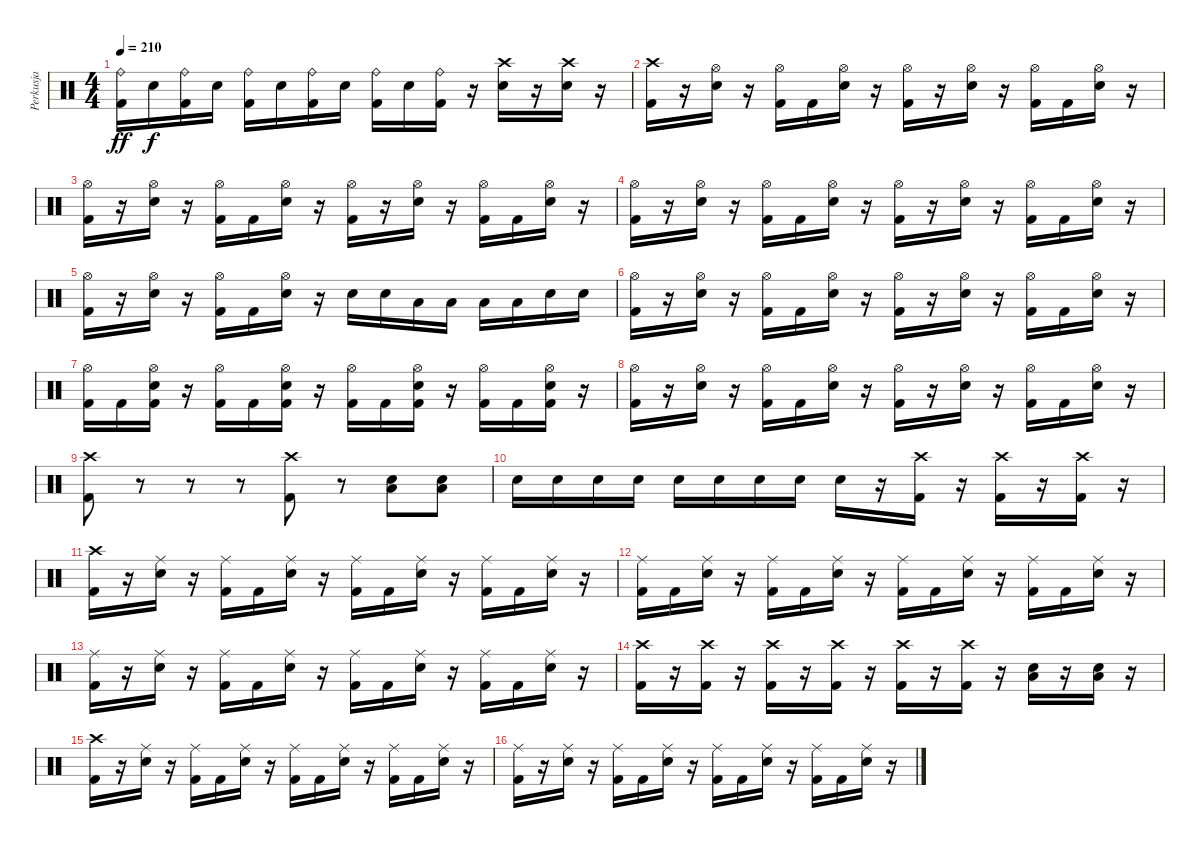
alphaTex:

\track ("Perkusja" "Perkusja") {instrument percussion}
\staff {score}
\articulation defaults
\ts (4 4)
\tempo 210
\clef neutral
\ks c
("Ride (bell)" "Kick (hit) 2").16{dy ff} "Snare (hit) 2".16{dy f} ("Ride (bell)" "Kick (hit) 2").16 "Snare (hit) 2".16 ("Ride (bell)" "Kick (hit) 2").16 "Snare (hit) 2".16 ("Ride (bell)" "Kick (hit) 2").16 "Snare (hit) 2".16 ("Ride (bell)" "Kick (hit) 2").16 "Snare (hit) 2".16 ("Ride (bell)" "Kick (hit) 2").16 r.16 ("Crash high (hit)" "Snare (hit) 2").16 r.16 ("Crash high (hit)" "Snare (hit) 2").16 r.16 |
("Crash high (hit)" "Kick (hit) 2").16 r.16 ("Hi-Hat (open)" "Snare (hit) 2").16 r.16 ("Hi-Hat (open)" "Kick (hit) 2").16 "Kick (hit) 2".16 ("Hi-Hat (open)" "Snare (hit) 2").16 r.16 ("Hi-Hat (open)" "Kick (hit) 2").16 r.16 ("Hi-Hat (open)" "Snare (hit) 2").16 r.16 ("Hi-Hat (open)" "Kick (hit) 2").16 "Kick (hit) 2".16 ("Hi-Hat (open)" "Snare (hit) 2").16 r.16 |
("Hi-Hat (open)" "Kick (hit) 2").16 r.16 ("Hi-Hat (open)" "Snare (hit) 2").16 r.16 ("Hi-Hat (open)" "Kick (hit) 2").16 "Kick (hit) 2".16 ("Hi-Hat (open)" "Snare (hit) 2").16 r.16 ("Hi-Hat (open)" "Kick (hit) 2").16 r.16 ("Hi-Hat (open)" "Snare (hit) 2").16 r.16 ("Hi-Hat (open)" "Kick (hit) 2").16 "Kick (hit) 2".16 ("Hi-Hat (open)" "Snare (hit) 2").16 r.16 |
("Hi-Hat (open)" "Kick (hit) 2").16 r.16 ("Hi-Hat (open)" "Snare (hit) 2").16 r.16 ("Hi-Hat (open)" "Kick (hit) 2").16 "Kick (hit) 2".16 ("Hi-Hat (open)" "Snare (hit) 2").16 r.16 ("Hi-Hat (open)" "Kick (hit) 2").16 r.16 ("Hi-Hat (open)" "Snare (hit) 2").16 r.16 ("Hi-Hat (open)" "Kick (hit) 2").16 "Kick (hit) 2".16 ("Hi-Hat (open)" "Snare (hit) 2").16 r.16 |
("Hi-Hat (open)" "Kick (hit) 2").16 r.16 ("Hi-Hat (open)" "Snare (hit) 2").16 r.16 ("Hi-Hat (open)" "Kick (hit) 2").16 "Kick (hit) 2".16 ("Hi-Hat (open)" "Snare (hit) 2").16 r.16 "Snare (hit) 2".16 "Snare (hit) 2".16 "Low Tom (hit)".16 "Low Tom (hit)".16 "Low Tom (hit)".16 "Low Tom (hit)".16 "Snare (hit) 2".16 "Snare (hit) 2".16 |
("Hi-Hat (open)" "Kick (hit) 2").16 r.16 ("Hi-Hat (open)" "Snare (hit) 2").16 r.16 ("Hi-Hat (open)" "Kick (hit) 2").16 "Kick (hit) 2".16 ("Hi-Hat (open)" "Snare (hit) 2").16 r.16 ("Hi-Hat (open)" "Kick (hit) 2").16 r.16 ("Hi-Hat (open)" "Snare (hit) 2").16 r.16 ("Hi-Hat (open)" "Kick (hit) 2").16 "Kick (hit) 2".16 ("Hi-Hat (open)" "Snare (hit) 2").16 r.16 |
("Hi-Hat (open)" "Kick (hit) 2").16 "Kick (hit) 2".16 ("Hi-Hat (open)" "Snare (hit) 2" "Kick (hit) 2").16 r.16 ("Hi-Hat (open)" "Kick (hit) 2").16 "Kick (hit) 2".16 ("Hi-Hat (open)" "Snare (hit) 2" "Kick (hit) 2").16 r.16 ("Hi-Hat (open)" "Kick (hit) 2").16 "Kick (hit) 2".16 ("Hi-Hat (open)" "Snare (hit) 2" "Kick (hit) 2").16 r.16 ("Hi-Hat (open)" "Kick (hit) 2").16 "Kick (hit) 2".16 ("Hi-Hat (open)" "Snare (hit) 2" "Kick (hit) 2").16 r.16 |
("Hi-Hat (open)" "Kick (hit) 2").16 r.16 ("Hi-Hat (open)" "Snare (hit) 2").16 r.16 ("Hi-Hat (open)" "Kick (hit) 2").16 "Kick (hit) 2".16 ("Hi-Hat (open)" "Snare (hit) 2").16 r.16 ("Hi-Hat (open)" "Kick (hit) 2").16 r.16 ("Hi-Hat (open)" "Snare (hit) 2").16 r.16 ("Hi-Hat (open)" "Kick (hit) 2").16 "Kick (hit) 2".16 ("Hi-Hat (open)" "Snare (hit) 2").16 r.16 |
("Crash high (hit)" "Kick (hit) 2").8 r.8 r.8 r.8 ("Crash high (hit)" "Kick (hit) 2").8 r.8 ("Snare (hit) 2" "Low Floor Tom (hit)").8 ("Snare (hit) 2" "Low Floor Tom (hit)").8 |
"Snare (hit) 2".16 "Snare (hit) 2".16 "Snare (hit) 2".16 "Snare (hit) 2".16 "Snare (hit) 2".16 "Snare (hit) 2".16 "Snare (hit) 2".16 "Snare (hit) 2".16 "Snare (hit) 2".16 r.16 ("Crash high (hit)" "Kick (hit) 2").16 r.16 ("Crash high (hit)" "Kick (hit) 2").16 r.16 ("Crash high (hit)" "Kick (hit) 2").16 r.16 |
("Crash high (hit)" "Kick (hit) 2").16 r.16 ("Ride (middle)" "Snare (hit) 2").16 r.16 ("Ride (middle)" "Kick (hit) 2").16 "Kick (hit) 2".16 ("Ride (middle)" "Snare (hit) 2").16 r.16 ("Ride (middle)" "Kick (hit) 2").16 "Kick (hit) 2".16 ("Ride (middle)" "Snare (hit) 2").16 r.16 ("Ride (middle)" "Kick (hit) 2").16 "Kick (hit) 2".16 ("Ride (middle)" "Snare (hit) 2").16 r.16 |
("Ride (middle)" "Kick (hit) 2").16 "Kick (hit) 2".16 ("Ride (middle)" "Snare (hit) 2").16 r.16 ("Ride (middle)" "Kick (hit) 2").16 "Kick (hit) 2".16 ("Ride (middle)" "Snare (hit) 2").16 r.16 ("Ride (middle)" "Kick (hit) 2").16 "Kick (hit) 2".16 ("Ride (middle)" "Snare (hit) 2").16 r.16 ("Ride (middle)" "Kick (hit) 2").16 "Kick (hit) 2".16 ("Ride (middle)" "Snare (hit) 2").16 r.16 |
("Ride (middle)" "Kick (hit) 2").16 r.16 ("Ride (middle)" "Snare (hit) 2").16 r.16 ("Ride (middle)" "Kick (hit) 2").16 "Kick (hit) 2".16 ("Ride (middle)" "Snare (hit) 2").16 r.16 ("Ride (middle)" "Kick (hit) 2").16 "Kick (hit) 2".16 ("Ride (middle)" "Snare (hit) 2").16 r.16 ("Ride (middle)" "Kick (hit) 2").16 "Kick (hit) 2".16 ("Ride (middle)" "Snare (hit) 2").16 r.16 |
("Crash high (hit)" "Kick (hit) 2").16 r.16 ("Crash high (hit)" "Kick (hit) 2").16 r.16 ("Crash high (hit)" "Kick (hit) 2").16 r.16 ("Crash high (hit)" "Kick (hit) 2").16 r.16 ("Crash high (hit)" "Kick (hit) 2").16 r.16 ("Crash high (hit)" "Kick (hit) 2").16 r.16 ("Snare (hit) 2" "Low Floor Tom (hit)").16 r.16 ("Snare (hit) 2" "Low Floor Tom (hit)").16 r.16 |
("Crash high (hit)" "Kick (hit) 2").16 r.16 ("Ride (middle)" "Snare (hit) 2").16 r.16 ("Ride (middle)" "Kick (hit) 2").16 "Kick (hit) 2".16 ("Ride (middle)" "Snare (hit) 2").16 r.16 ("Ride (middle)" "Kick (hit) 2").16 "Kick (hit) 2".16 ("Ride (middle)" "Snare (hit) 2").16 r.16 ("Ride (middle)" "Kick (hit) 2").16 "Kick (hit) 2".16 ("Ride (middle)" "Snare (hit) 2").16 r.16 |
("Ride (middle)" "Kick (hit) 2").16 r.16 ("Ride (middle)" "Snare (hit) 2").16 r.16 ("Ride (middle)" "Kick (hit) 2").16 "Kick (hit) 2".16 ("Ride (middle)" "Snare (hit) 2").16 r.16 ("Ride (middle)" "Kick (hit) 2").16 "Kick (hit) 2".16 ("Ride (middle)" "Snare (hit) 2").16 r.16 ("Ride (middle)" "Kick (hit) 2").16 "Kick (hit) 2".16 ("Ride (middle)" "Snare (hit) 2").16 r.16
